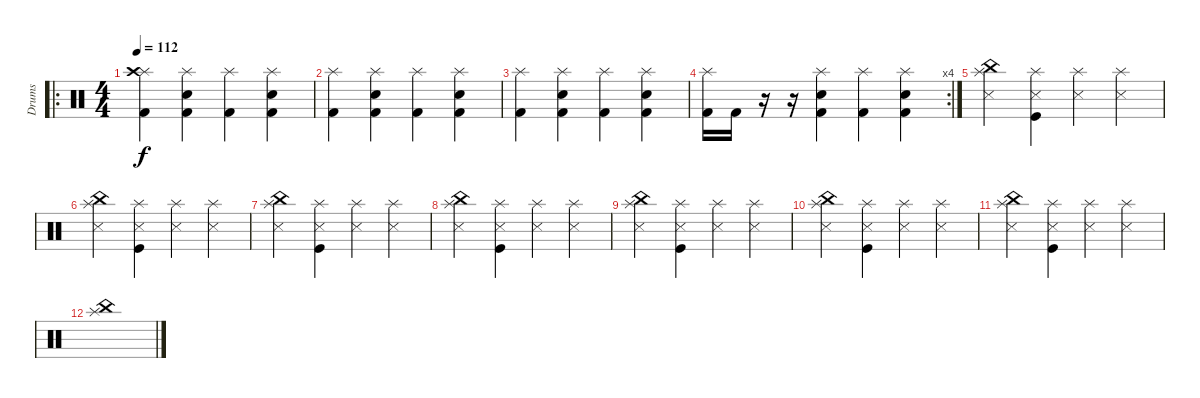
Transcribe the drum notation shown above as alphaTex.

\track ("Drums" "Drums") {instrument percussion}
\staff {score}
\articulation defaults
\ro
\ts (4 4)
\tempo 112
\clef neutral
\ks c
("Splash (hit)" "Crash high (hit)" "Kick (hit) 2").4{dy f} ("Splash (hit)" "Electric Snare (hit)" "Kick (hit) 2").4 ("Splash (hit)" "Kick (hit) 2").4 ("Splash (hit)" "Electric Snare (hit)" "Kick (hit) 2").4 |
("Splash (hit)" "Kick (hit) 2").4 ("Splash (hit)" "Electric Snare (hit)" "Kick (hit) 2").4 ("Splash (hit)" "Kick (hit) 2").4 ("Splash (hit)" "Electric Snare (hit)" "Kick (hit) 2").4 |
("Splash (hit)" "Kick (hit) 2").4 ("Splash (hit)" "Electric Snare (hit)" "Kick (hit) 2").4 ("Splash (hit)" "Kick (hit) 2").4 ("Splash (hit)" "Electric Snare (hit)" "Kick (hit) 2").4 |
\rc 4
("Splash (hit)" "Kick (hit) 2").16 "Kick (hit) 2".16 r.16 r.16 ("Splash (hit)" "Electric Snare (hit)" "Kick (hit) 2").4 ("Splash (hit)" "Kick (hit) 2").4 ("Splash (hit)" "Electric Snare (hit)" "Kick (hit) 2").4 |
("Splash (hit)" "Snare (side stick) 3" "China (hit)").4 ("Splash (hit)" "Snare (side stick) 3" "Kick (hit)").4 ("Splash (hit)" "Snare (side stick) 3").4 ("Splash (hit)" "Snare (side stick) 3").4 |
("Splash (hit)" "Snare (side stick) 3" "China (hit)").4 ("Splash (hit)" "Snare (side stick) 3" "Kick (hit)").4 ("Splash (hit)" "Snare (side stick) 3").4 ("Splash (hit)" "Snare (side stick) 3").4 |
("Splash (hit)" "Snare (side stick) 3" "China (hit)").4 ("Splash (hit)" "Snare (side stick) 3" "Kick (hit)").4 ("Splash (hit)" "Snare (side stick) 3").4 ("Splash (hit)" "Snare (side stick) 3").4 |
("Splash (hit)" "Snare (side stick) 3" "China (hit)").4 ("Splash (hit)" "Snare (side stick) 3" "Kick (hit)").4 ("Splash (hit)" "Snare (side stick) 3").4 ("Splash (hit)" "Snare (side stick) 3").4 |
("Splash (hit)" "Snare (side stick) 3" "China (hit)").4 ("Splash (hit)" "Snare (side stick) 3" "Kick (hit)").4 ("Splash (hit)" "Snare (side stick) 3").4 ("Splash (hit)" "Snare (side stick) 3").4 |
("Splash (hit)" "Snare (side stick) 3" "China (hit)").4 ("Splash (hit)" "Snare (side stick) 3" "Kick (hit)").4 ("Splash (hit)" "Snare (side stick) 3").4 ("Splash (hit)" "Snare (side stick) 3").4 |
("Splash (hit)" "Snare (side stick) 3" "China (hit)").4 ("Splash (hit)" "Snare (side stick) 3" "Kick (hit)").4 ("Splash (hit)" "Snare (side stick) 3").4 ("Splash (hit)" "Snare (side stick) 3").4 |
("Splash (hit)" "China (hit)").1
